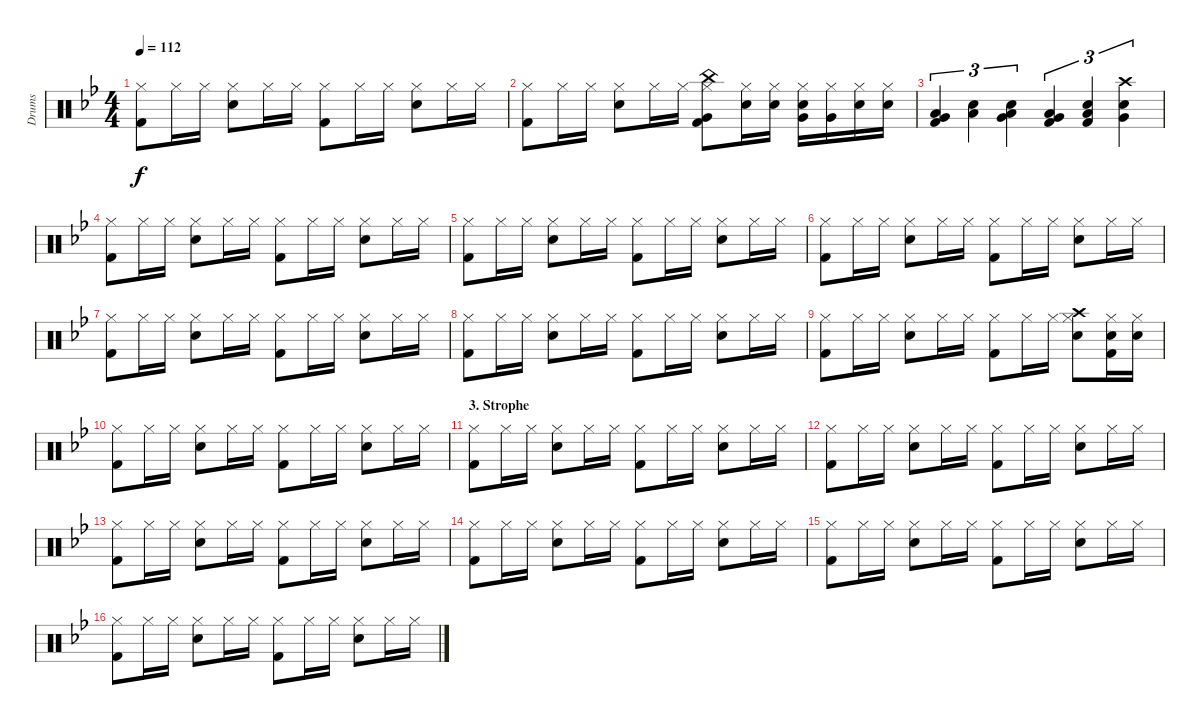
\track ("Drums" "Drums") {instrument percussion}
\staff {score}
\articulation defaults
\ts (4 4)
\tempo 112
\clef neutral
\ks bb
("Hi-Hat (closed)" "Kick (hit) 2").8{dy f} "Hi-Hat (closed)".16 "Hi-Hat (closed)".16 ("Snare (hit) 2" "Hi-Hat (closed)").8 "Hi-Hat (closed)".16 "Hi-Hat (closed)".16 ("Hi-Hat (closed)" "Kick (hit) 2").8 "Hi-Hat (closed)".16 "Hi-Hat (closed)".16 ("Snare (hit) 2" "Hi-Hat (closed)").8 "Hi-Hat (closed)".16 "Hi-Hat (closed)".16 |
("Hi-Hat (closed)" "Kick (hit) 2").8 "Hi-Hat (closed)".16 "Hi-Hat (closed)".16 ("Snare (hit) 2" "Hi-Hat (closed)").8 "Hi-Hat (closed)".16 "Hi-Hat (closed)".16 ("Hi-Hat (closed)" "Very Low Tom (hit)" "Kick (hit) 2" "China (hit)").8 ("Hi-Hat (closed)" "Snare (hit) 2").16 ("Hi-Hat (closed)" "Snare (hit) 2").16 ("Snare (hit) 2" "Hi-Hat (closed)" "Very Low Tom (hit)").16 ("Hi-Hat (closed)" "Very Low Tom (hit)").16 ("Hi-Hat (closed)" "Snare (hit) 2").16 ("Hi-Hat (closed)" "Snare (hit) 2").16 |
("Kick (hit) 2" "Low Floor Tom (hit)" "Very Low Tom (hit)").4{tu (3 2)} ("Low Floor Tom (hit)" "Snare (hit) 2").4{tu (3 2)} ("Very Low Tom (hit)" "Snare (hit) 2" "Low Floor Tom (hit)").4{tu (3 2)} ("Kick (hit) 2" "Low Floor Tom (hit)" "Very Low Tom (hit)").4{tu (3 2)} ("Low Floor Tom (hit)" "Kick (hit) 2" "Snare (hit) 2").4{tu (3 2)} ("Very Low Tom (hit)" "Snare (hit) 2" "Crash high (hit)").4{tu (3 2)} |
("Hi-Hat (closed)" "Kick (hit) 2").8 "Hi-Hat (closed)".16 "Hi-Hat (closed)".16 ("Snare (hit) 2" "Hi-Hat (closed)").8 "Hi-Hat (closed)".16 "Hi-Hat (closed)".16 ("Hi-Hat (closed)" "Kick (hit) 2").8 "Hi-Hat (closed)".16 "Hi-Hat (closed)".16 ("Snare (hit) 2" "Hi-Hat (closed)").8 "Hi-Hat (closed)".16 "Hi-Hat (closed)".16 |
("Hi-Hat (closed)" "Kick (hit) 2").8 "Hi-Hat (closed)".16 "Hi-Hat (closed)".16 ("Snare (hit) 2" "Hi-Hat (closed)").8 "Hi-Hat (closed)".16 "Hi-Hat (closed)".16 ("Hi-Hat (closed)" "Kick (hit) 2").8 "Hi-Hat (closed)".16 "Hi-Hat (closed)".16 ("Snare (hit) 2" "Hi-Hat (closed)").8 "Hi-Hat (closed)".16 "Hi-Hat (closed)".16 |
("Hi-Hat (closed)" "Kick (hit) 2").8 "Hi-Hat (closed)".16 "Hi-Hat (closed)".16 ("Snare (hit) 2" "Hi-Hat (closed)").8 "Hi-Hat (closed)".16 "Hi-Hat (closed)".16 ("Hi-Hat (closed)" "Kick (hit) 2").8 "Hi-Hat (closed)".16 "Hi-Hat (closed)".16 ("Snare (hit) 2" "Hi-Hat (closed)").8 "Hi-Hat (closed)".16 "Hi-Hat (closed)".16 |
("Hi-Hat (closed)" "Kick (hit) 2").8 "Hi-Hat (closed)".16 "Hi-Hat (closed)".16 ("Snare (hit) 2" "Hi-Hat (closed)").8 "Hi-Hat (closed)".16 "Hi-Hat (closed)".16 ("Hi-Hat (closed)" "Kick (hit) 2").8 "Hi-Hat (closed)".16 "Hi-Hat (closed)".16 ("Snare (hit) 2" "Hi-Hat (closed)").8 "Hi-Hat (closed)".16 "Hi-Hat (closed)".16 |
("Hi-Hat (closed)" "Kick (hit) 2").8 "Hi-Hat (closed)".16 "Hi-Hat (closed)".16 ("Snare (hit) 2" "Hi-Hat (closed)").8 "Hi-Hat (closed)".16 "Hi-Hat (closed)".16 ("Hi-Hat (closed)" "Kick (hit) 2").8 "Hi-Hat (closed)".16 "Hi-Hat (closed)".16 ("Snare (hit) 2" "Hi-Hat (closed)").8 "Hi-Hat (closed)".16 "Hi-Hat (closed)".16 |
("Hi-Hat (closed)" "Kick (hit) 2").8 "Hi-Hat (closed)".16 "Hi-Hat (closed)".16 ("Snare (hit) 2" "Hi-Hat (closed)").8 "Hi-Hat (closed)".16 "Hi-Hat (closed)".16 ("Hi-Hat (closed)" "Kick (hit) 2").8 "Hi-Hat (closed)".16 "Hi-Hat (closed)".16 ("Snare (hit) 2" "Hi-Hat (closed)" "Crash high (hit)").8 ("Hi-Hat (closed)" "Kick (hit) 2" "Snare (hit) 2").16 ("Hi-Hat (closed)" "Snare (hit) 2").16 |
("Hi-Hat (closed)" "Kick (hit) 2").8 "Hi-Hat (closed)".16 "Hi-Hat (closed)".16 ("Snare (hit) 2" "Hi-Hat (closed)").8 "Hi-Hat (closed)".16 "Hi-Hat (closed)".16 ("Hi-Hat (closed)" "Kick (hit) 2").8 "Hi-Hat (closed)".16 "Hi-Hat (closed)".16 ("Snare (hit) 2" "Hi-Hat (closed)").8 "Hi-Hat (closed)".16 "Hi-Hat (closed)".16 |
\section ("" "3. Strophe")
("Hi-Hat (closed)" "Kick (hit) 2").8 "Hi-Hat (closed)".16 "Hi-Hat (closed)".16 ("Snare (hit) 2" "Hi-Hat (closed)").8 "Hi-Hat (closed)".16 "Hi-Hat (closed)".16 ("Hi-Hat (closed)" "Kick (hit) 2").8 "Hi-Hat (closed)".16 "Hi-Hat (closed)".16 ("Snare (hit) 2" "Hi-Hat (closed)").8 "Hi-Hat (closed)".16 "Hi-Hat (closed)".16 |
("Hi-Hat (closed)" "Kick (hit) 2").8 "Hi-Hat (closed)".16 "Hi-Hat (closed)".16 ("Snare (hit) 2" "Hi-Hat (closed)").8 "Hi-Hat (closed)".16 "Hi-Hat (closed)".16 ("Hi-Hat (closed)" "Kick (hit) 2").8 "Hi-Hat (closed)".16 "Hi-Hat (closed)".16 ("Snare (hit) 2" "Hi-Hat (closed)").8 "Hi-Hat (closed)".16 "Hi-Hat (closed)".16 |
("Hi-Hat (closed)" "Kick (hit) 2").8 "Hi-Hat (closed)".16 "Hi-Hat (closed)".16 ("Snare (hit) 2" "Hi-Hat (closed)").8 "Hi-Hat (closed)".16 "Hi-Hat (closed)".16 ("Hi-Hat (closed)" "Kick (hit) 2").8 "Hi-Hat (closed)".16 "Hi-Hat (closed)".16 ("Snare (hit) 2" "Hi-Hat (closed)").8 "Hi-Hat (closed)".16 "Hi-Hat (closed)".16 |
("Hi-Hat (closed)" "Kick (hit) 2").8 "Hi-Hat (closed)".16 "Hi-Hat (closed)".16 ("Snare (hit) 2" "Hi-Hat (closed)").8 "Hi-Hat (closed)".16 "Hi-Hat (closed)".16 ("Hi-Hat (closed)" "Kick (hit) 2").8 "Hi-Hat (closed)".16 "Hi-Hat (closed)".16 ("Snare (hit) 2" "Hi-Hat (closed)").8 "Hi-Hat (closed)".16 "Hi-Hat (closed)".16 |
("Hi-Hat (closed)" "Kick (hit) 2").8 "Hi-Hat (closed)".16 "Hi-Hat (closed)".16 ("Snare (hit) 2" "Hi-Hat (closed)").8 "Hi-Hat (closed)".16 "Hi-Hat (closed)".16 ("Hi-Hat (closed)" "Kick (hit) 2").8 "Hi-Hat (closed)".16 "Hi-Hat (closed)".16 ("Snare (hit) 2" "Hi-Hat (closed)").8 "Hi-Hat (closed)".16 "Hi-Hat (closed)".16 |
("Hi-Hat (closed)" "Kick (hit) 2").8 "Hi-Hat (closed)".16 "Hi-Hat (closed)".16 ("Snare (hit) 2" "Hi-Hat (closed)").8 "Hi-Hat (closed)".16 "Hi-Hat (closed)".16 ("Hi-Hat (closed)" "Kick (hit) 2").8 "Hi-Hat (closed)".16 "Hi-Hat (closed)".16 ("Snare (hit) 2" "Hi-Hat (closed)").8 "Hi-Hat (closed)".16 "Hi-Hat (closed)".16
